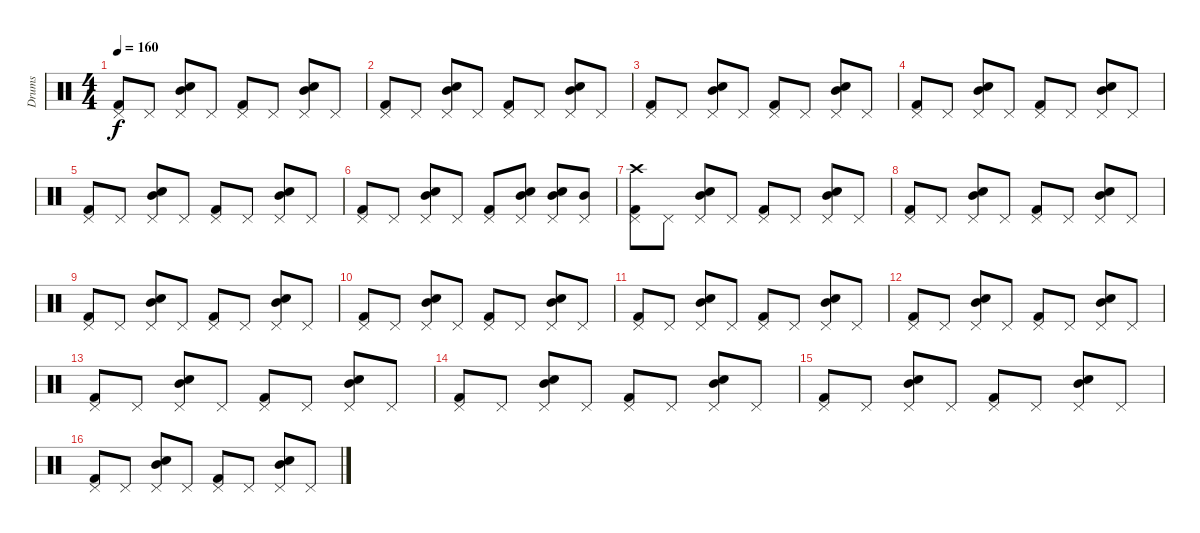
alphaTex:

\track ("Drums" "Drums") {instrument percussion}
\staff {score}
\articulation defaults
\ts (4 4)
\tempo 160
\clef neutral
\ks c
("Kick (hit) 2" "Pedal Hi-Hat (hit)").8{dy f} "Pedal Hi-Hat (hit)".8 ("Snare (hit) 2" "Pedal Hi-Hat (hit)" "Mid Tom (hit)").8 "Pedal Hi-Hat (hit)".8 ("Kick (hit) 2" "Pedal Hi-Hat (hit)").8 "Pedal Hi-Hat (hit)".8 ("Snare (hit) 2" "Pedal Hi-Hat (hit)" "Mid Tom (hit)").8 "Pedal Hi-Hat (hit)".8 |
("Kick (hit) 2" "Pedal Hi-Hat (hit)").8 "Pedal Hi-Hat (hit)".8 ("Snare (hit) 2" "Pedal Hi-Hat (hit)" "Mid Tom (hit)").8 "Pedal Hi-Hat (hit)".8 ("Kick (hit) 2" "Pedal Hi-Hat (hit)").8 "Pedal Hi-Hat (hit)".8 ("Snare (hit) 2" "Pedal Hi-Hat (hit)" "Mid Tom (hit)").8 "Pedal Hi-Hat (hit)".8 |
("Kick (hit) 2" "Pedal Hi-Hat (hit)").8 "Pedal Hi-Hat (hit)".8 ("Snare (hit) 2" "Pedal Hi-Hat (hit)" "Mid Tom (hit)").8 "Pedal Hi-Hat (hit)".8 ("Kick (hit) 2" "Pedal Hi-Hat (hit)").8 "Pedal Hi-Hat (hit)".8 ("Snare (hit) 2" "Pedal Hi-Hat (hit)" "Mid Tom (hit)").8 "Pedal Hi-Hat (hit)".8 |
("Kick (hit) 2" "Pedal Hi-Hat (hit)").8 "Pedal Hi-Hat (hit)".8 ("Snare (hit) 2" "Pedal Hi-Hat (hit)" "Mid Tom (hit)").8 "Pedal Hi-Hat (hit)".8 ("Kick (hit) 2" "Pedal Hi-Hat (hit)").8 "Pedal Hi-Hat (hit)".8 ("Snare (hit) 2" "Pedal Hi-Hat (hit)" "Mid Tom (hit)").8 "Pedal Hi-Hat (hit)".8 |
("Kick (hit) 2" "Pedal Hi-Hat (hit)").8 "Pedal Hi-Hat (hit)".8 ("Snare (hit) 2" "Pedal Hi-Hat (hit)" "Mid Tom (hit)").8 "Pedal Hi-Hat (hit)".8 ("Kick (hit) 2" "Pedal Hi-Hat (hit)").8 "Pedal Hi-Hat (hit)".8 ("Snare (hit) 2" "Pedal Hi-Hat (hit)" "Mid Tom (hit)").8 "Pedal Hi-Hat (hit)".8 |
("Kick (hit) 2" "Pedal Hi-Hat (hit)").8 "Pedal Hi-Hat (hit)".8 ("Snare (hit) 2" "Pedal Hi-Hat (hit)" "Mid Tom (hit)").8 "Pedal Hi-Hat (hit)".8 ("Kick (hit) 2" "Pedal Hi-Hat (hit)").8 ("Snare (hit) 2" "Pedal Hi-Hat (hit)" "Mid Tom (hit)").8 ("Snare (hit) 2" "Pedal Hi-Hat (hit)" "Mid Tom (hit)").8 ("Pedal Hi-Hat (hit)" "Mid Tom (hit)").8 |
("Kick (hit) 2" "Pedal Hi-Hat (hit)" "Crash high (hit)").8 "Pedal Hi-Hat (hit)".8 ("Snare (hit) 2" "Pedal Hi-Hat (hit)" "Mid Tom (hit)").8 "Pedal Hi-Hat (hit)".8 ("Kick (hit) 2" "Pedal Hi-Hat (hit)").8 "Pedal Hi-Hat (hit)".8 ("Snare (hit) 2" "Pedal Hi-Hat (hit)" "Mid Tom (hit)").8 "Pedal Hi-Hat (hit)".8 |
("Kick (hit) 2" "Pedal Hi-Hat (hit)").8 "Pedal Hi-Hat (hit)".8 ("Snare (hit) 2" "Pedal Hi-Hat (hit)" "Mid Tom (hit)").8 "Pedal Hi-Hat (hit)".8 ("Kick (hit) 2" "Pedal Hi-Hat (hit)").8 "Pedal Hi-Hat (hit)".8 ("Snare (hit) 2" "Pedal Hi-Hat (hit)" "Mid Tom (hit)").8 "Pedal Hi-Hat (hit)".8 |
("Kick (hit) 2" "Pedal Hi-Hat (hit)").8 "Pedal Hi-Hat (hit)".8 ("Snare (hit) 2" "Pedal Hi-Hat (hit)" "Mid Tom (hit)").8 "Pedal Hi-Hat (hit)".8 ("Kick (hit) 2" "Pedal Hi-Hat (hit)").8 "Pedal Hi-Hat (hit)".8 ("Snare (hit) 2" "Pedal Hi-Hat (hit)" "Mid Tom (hit)").8 "Pedal Hi-Hat (hit)".8 |
("Kick (hit) 2" "Pedal Hi-Hat (hit)").8 "Pedal Hi-Hat (hit)".8 ("Snare (hit) 2" "Pedal Hi-Hat (hit)" "Mid Tom (hit)").8 "Pedal Hi-Hat (hit)".8 ("Kick (hit) 2" "Pedal Hi-Hat (hit)").8 "Pedal Hi-Hat (hit)".8 ("Snare (hit) 2" "Pedal Hi-Hat (hit)" "Mid Tom (hit)").8 "Pedal Hi-Hat (hit)".8 |
("Kick (hit) 2" "Pedal Hi-Hat (hit)").8 "Pedal Hi-Hat (hit)".8 ("Snare (hit) 2" "Pedal Hi-Hat (hit)" "Mid Tom (hit)").8 "Pedal Hi-Hat (hit)".8 ("Kick (hit) 2" "Pedal Hi-Hat (hit)").8 "Pedal Hi-Hat (hit)".8 ("Snare (hit) 2" "Pedal Hi-Hat (hit)" "Mid Tom (hit)").8 "Pedal Hi-Hat (hit)".8 |
("Kick (hit) 2" "Pedal Hi-Hat (hit)").8 "Pedal Hi-Hat (hit)".8 ("Snare (hit) 2" "Pedal Hi-Hat (hit)" "Mid Tom (hit)").8 "Pedal Hi-Hat (hit)".8 ("Kick (hit) 2" "Pedal Hi-Hat (hit)").8 "Pedal Hi-Hat (hit)".8 ("Snare (hit) 2" "Pedal Hi-Hat (hit)" "Mid Tom (hit)").8 "Pedal Hi-Hat (hit)".8 |
("Kick (hit) 2" "Pedal Hi-Hat (hit)").8 "Pedal Hi-Hat (hit)".8 ("Snare (hit) 2" "Pedal Hi-Hat (hit)" "Mid Tom (hit)").8 "Pedal Hi-Hat (hit)".8 ("Kick (hit) 2" "Pedal Hi-Hat (hit)").8 "Pedal Hi-Hat (hit)".8 ("Snare (hit) 2" "Pedal Hi-Hat (hit)" "Mid Tom (hit)").8 "Pedal Hi-Hat (hit)".8 |
("Kick (hit) 2" "Pedal Hi-Hat (hit)").8 "Pedal Hi-Hat (hit)".8 ("Snare (hit) 2" "Pedal Hi-Hat (hit)" "Mid Tom (hit)").8 "Pedal Hi-Hat (hit)".8 ("Kick (hit) 2" "Pedal Hi-Hat (hit)").8 "Pedal Hi-Hat (hit)".8 ("Snare (hit) 2" "Pedal Hi-Hat (hit)" "Mid Tom (hit)").8 "Pedal Hi-Hat (hit)".8 |
("Kick (hit) 2" "Pedal Hi-Hat (hit)").8 "Pedal Hi-Hat (hit)".8 ("Snare (hit) 2" "Pedal Hi-Hat (hit)" "Mid Tom (hit)").8 "Pedal Hi-Hat (hit)".8 ("Kick (hit) 2" "Pedal Hi-Hat (hit)").8 "Pedal Hi-Hat (hit)".8 ("Snare (hit) 2" "Pedal Hi-Hat (hit)" "Mid Tom (hit)").8 "Pedal Hi-Hat (hit)".8 |
("Kick (hit) 2" "Pedal Hi-Hat (hit)").8 "Pedal Hi-Hat (hit)".8 ("Snare (hit) 2" "Pedal Hi-Hat (hit)" "Mid Tom (hit)").8 "Pedal Hi-Hat (hit)".8 ("Kick (hit) 2" "Pedal Hi-Hat (hit)").8 "Pedal Hi-Hat (hit)".8 ("Snare (hit) 2" "Pedal Hi-Hat (hit)" "Mid Tom (hit)").8 "Pedal Hi-Hat (hit)".8
